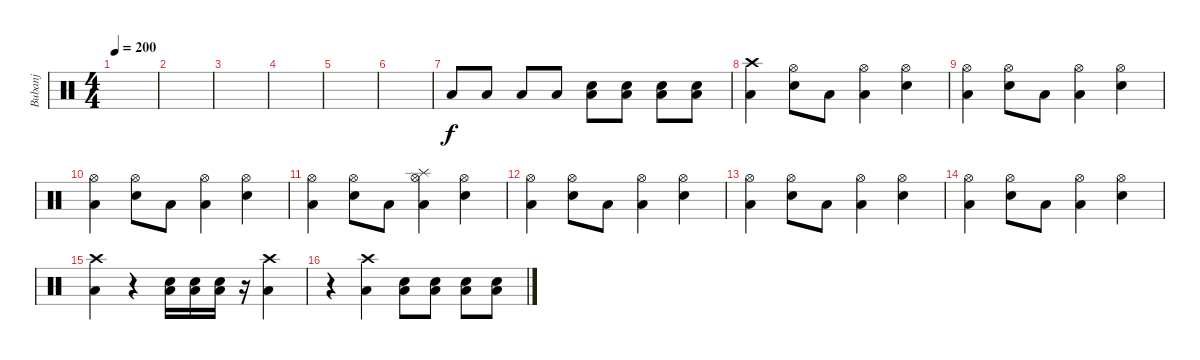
\track ("Bubanj" "Bubanj") {instrument percussion}
\staff {score}
\articulation defaults
\ts (4 4)
\tempo 200
\clef neutral
\ks c
|
|
|
|
|
|
"Low Tom (hit)".8 "Low Tom (hit)".8 "Low Tom (hit)".8 "Low Tom (hit)".8 ("Snare (hit) 2" "Low Tom (hit)").8 ("Snare (hit) 2" "Low Tom (hit)").8 ("Snare (hit) 2" "Low Tom (hit)").8 ("Snare (hit) 2" "Low Tom (hit)").8 |
("Crash high (hit)" "Low Tom (hit)").4 ("Hi-Hat (open)" "Snare (hit) 2").8 "Low Tom (hit)".8 ("Hi-Hat (open)" "Low Tom (hit)").4 ("Hi-Hat (open)" "Snare (hit) 2").4 |
("Hi-Hat (open)" "Low Tom (hit)").4 ("Hi-Hat (open)" "Snare (hit) 2").8 "Low Tom (hit)".8 ("Hi-Hat (open)" "Low Tom (hit)").4 ("Hi-Hat (open)" "Snare (hit) 2").4 |
("Hi-Hat (open)" "Low Tom (hit)").4 ("Hi-Hat (open)" "Snare (hit) 2").8 "Low Tom (hit)".8 ("Hi-Hat (open)" "Low Tom (hit)").4 ("Hi-Hat (open)" "Snare (hit) 2").4 |
("Hi-Hat (open)" "Low Tom (hit)").4 ("Hi-Hat (open)" "Snare (hit) 2").8 "Low Tom (hit)".8 ("Hi-Hat (open)" "Splash (hit)" "Low Tom (hit)").4 ("Hi-Hat (open)" "Snare (hit) 2").4 |
("Hi-Hat (open)" "Low Tom (hit)").4 ("Hi-Hat (open)" "Snare (hit) 2").8 "Low Tom (hit)".8 ("Hi-Hat (open)" "Low Tom (hit)").4 ("Hi-Hat (open)" "Snare (hit) 2").4 |
("Hi-Hat (open)" "Low Tom (hit)").4 ("Hi-Hat (open)" "Snare (hit) 2").8 "Low Tom (hit)".8 ("Hi-Hat (open)" "Low Tom (hit)").4 ("Hi-Hat (open)" "Snare (hit) 2").4 |
("Hi-Hat (open)" "Low Tom (hit)").4 ("Hi-Hat (open)" "Snare (hit) 2").8 "Low Tom (hit)".8 ("Hi-Hat (open)" "Low Tom (hit)").4 ("Hi-Hat (open)" "Snare (hit) 2").4 |
("Crash high (hit)" "Low Tom (hit)").4 r.4 ("Electric Snare (hit)" "Low Tom (hit)").16 ("Electric Snare (hit)" "Low Tom (hit)").16 ("Electric Snare (hit)" "Low Tom (hit)").16 r.16 ("Crash high (hit)" "Low Tom (hit)").4 |
r.4 ("Crash high (hit)" "Low Tom (hit)").4 ("Snare (hit) 2" "Low Tom (hit)").8 ("Snare (hit) 2" "Low Tom (hit)").8 ("Snare (hit) 2" "Low Tom (hit)").8 ("Snare (hit) 2" "Low Tom (hit)").8
